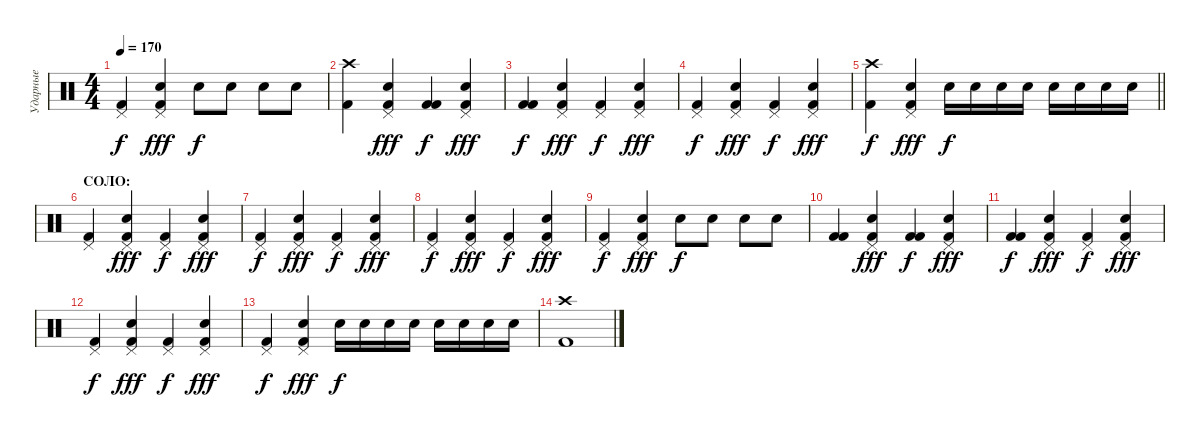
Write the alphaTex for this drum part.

\track ("Ударные" "Ударные") {instrument percussion}
\staff {score}
\articulation defaults
\ts (4 4)
\tempo 170
\clef neutral
\ks c
("Pedal Hi-Hat (hit)" "Kick (hit) 2").4{dy f} ("Pedal Hi-Hat (hit)" "Snare (hit) 2" "Kick (hit) 2").4{dy fff} "Snare (hit) 2".8{dy f} "Snare (hit) 2".8 "Electric Snare (hit)".8 "Electric Snare (hit)".8 |
("Crash high (hit)" "Kick (hit) 2").4 ("Pedal Hi-Hat (hit)" "Snare (hit) 2" "Kick (hit) 2").4{dy fff} ("Kick (hit) 2" "Kick (hit) 2").4{dy f} ("Pedal Hi-Hat (hit)" "Snare (hit) 2" "Kick (hit) 2").4{dy fff} |
("Kick (hit) 2" "Kick (hit) 2").4{dy f} ("Pedal Hi-Hat (hit)" "Snare (hit) 2" "Kick (hit) 2").4{dy fff} ("Pedal Hi-Hat (hit)" "Kick (hit) 2").4{dy f} ("Pedal Hi-Hat (hit)" "Snare (hit) 2" "Kick (hit) 2").4{dy fff} |
("Pedal Hi-Hat (hit)" "Kick (hit) 2").4{dy f} ("Pedal Hi-Hat (hit)" "Snare (hit) 2" "Kick (hit) 2").4{dy fff} ("Pedal Hi-Hat (hit)" "Kick (hit) 2").4{dy f} ("Pedal Hi-Hat (hit)" "Snare (hit) 2" "Kick (hit) 2").4{dy fff} |
\barLineRight lightlight
("Crash high (hit)" "Kick (hit) 2").4{dy f} ("Pedal Hi-Hat (hit)" "Snare (hit) 2" "Kick (hit) 2").4{dy fff} "Snare (hit) 2".16{dy f} "Snare (hit) 2".16 "Snare (hit) 2".16 "Snare (hit) 2".16 "Electric Snare (hit)".16 "Electric Snare (hit)".16 "Electric Snare (hit)".16 "Electric Snare (hit)".16 |
\section ("" "СОЛО:")
("Pedal Hi-Hat (hit)" "Kick (hit) 2").4 ("Pedal Hi-Hat (hit)" "Snare (hit) 2" "Kick (hit) 2").4{dy fff} ("Pedal Hi-Hat (hit)" "Kick (hit) 2").4{dy f} ("Pedal Hi-Hat (hit)" "Snare (hit) 2" "Kick (hit) 2").4{dy fff} |
("Pedal Hi-Hat (hit)" "Kick (hit) 2").4{dy f} ("Pedal Hi-Hat (hit)" "Snare (hit) 2" "Kick (hit) 2").4{dy fff} ("Pedal Hi-Hat (hit)" "Kick (hit) 2").4{dy f} ("Pedal Hi-Hat (hit)" "Snare (hit) 2" "Kick (hit) 2").4{dy fff} |
("Pedal Hi-Hat (hit)" "Kick (hit) 2").4{dy f} ("Pedal Hi-Hat (hit)" "Snare (hit) 2" "Kick (hit) 2").4{dy fff} ("Pedal Hi-Hat (hit)" "Kick (hit) 2").4{dy f} ("Pedal Hi-Hat (hit)" "Snare (hit) 2" "Kick (hit) 2").4{dy fff} |
("Pedal Hi-Hat (hit)" "Kick (hit) 2").4{dy f} ("Pedal Hi-Hat (hit)" "Snare (hit) 2" "Kick (hit) 2").4{dy fff} "Snare (hit) 2".8{dy f} "Snare (hit) 2".8 "Electric Snare (hit)".8 "Electric Snare (hit)".8 |
("Kick (hit) 2" "Kick (hit) 2").4 ("Pedal Hi-Hat (hit)" "Snare (hit) 2" "Kick (hit) 2").4{dy fff} ("Kick (hit) 2" "Kick (hit) 2").4{dy f} ("Pedal Hi-Hat (hit)" "Snare (hit) 2" "Kick (hit) 2").4{dy fff} |
("Kick (hit) 2" "Kick (hit) 2").4{dy f} ("Pedal Hi-Hat (hit)" "Snare (hit) 2" "Kick (hit) 2").4{dy fff} ("Pedal Hi-Hat (hit)" "Kick (hit) 2").4{dy f} ("Pedal Hi-Hat (hit)" "Snare (hit) 2" "Kick (hit) 2").4{dy fff} |
("Pedal Hi-Hat (hit)" "Kick (hit) 2").4{dy f} ("Pedal Hi-Hat (hit)" "Snare (hit) 2" "Kick (hit) 2").4{dy fff} ("Pedal Hi-Hat (hit)" "Kick (hit) 2").4{dy f} ("Pedal Hi-Hat (hit)" "Snare (hit) 2" "Kick (hit) 2").4{dy fff} |
("Pedal Hi-Hat (hit)" "Kick (hit) 2").4{dy f} ("Pedal Hi-Hat (hit)" "Snare (hit) 2" "Kick (hit) 2").4{dy fff} "Snare (hit) 2".16{dy f} "Snare (hit) 2".16 "Snare (hit) 2".16 "Snare (hit) 2".16 "Electric Snare (hit)".16 "Electric Snare (hit)".16 "Electric Snare (hit)".16 "Electric Snare (hit)".16 |
("Crash high (hit)" "Kick (hit) 2").1
